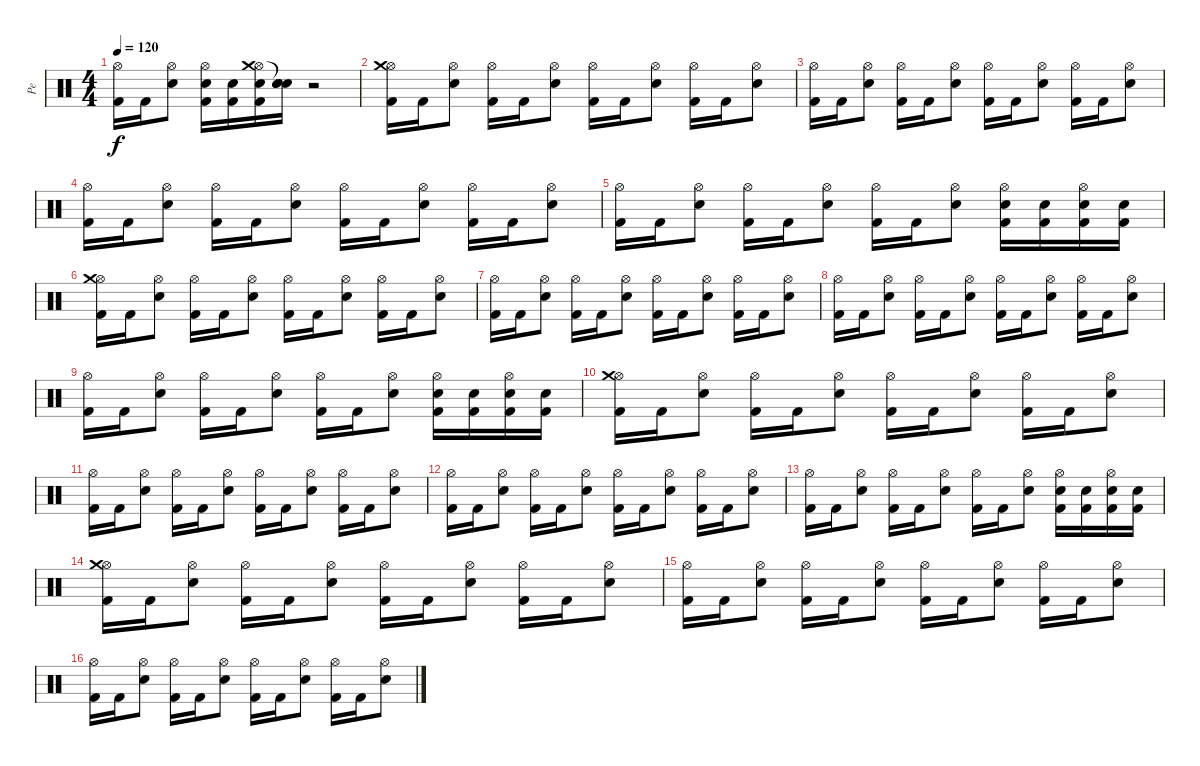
\track ("Pe" "Pe") {instrument percussion}
\staff {score}
\articulation defaults
\ts (4 4)
\tempo 120
\clef neutral
\ks c
("Hi-Hat (open)" "Kick (hit) 2").16{dy f} "Kick (hit) 2".16 ("Hi-Hat (open)" "Electric Snare (hit)").8 ("Hi-Hat (open)" "Electric Snare (hit)" "Kick (hit) 2").16 ("Electric Snare (hit)" "Kick (hit) 2").16 ("Hi-Hat (open)" "Crash medium (hit)" "Electric Snare (hit)" "Kick (hit) 2").16 ("Snare (hit)"{t} "Snare (hit)"{t} "Electric Snare (hit)").16 r.2 |
("Hi-Hat (open)" "Crash medium (hit)" "Kick (hit) 2").16 "Kick (hit) 2".16 ("Hi-Hat (open)" "Electric Snare (hit)").8 ("Hi-Hat (open)" "Kick (hit) 2").16 "Kick (hit) 2".16 ("Hi-Hat (open)" "Electric Snare (hit)").8 ("Hi-Hat (open)" "Kick (hit) 2").16 "Kick (hit) 2".16 ("Hi-Hat (open)" "Electric Snare (hit)").8 ("Hi-Hat (open)" "Kick (hit) 2").16 "Kick (hit) 2".16 ("Hi-Hat (open)" "Electric Snare (hit)").8 |
("Hi-Hat (open)" "Kick (hit) 2").16 "Kick (hit) 2".16 ("Hi-Hat (open)" "Electric Snare (hit)").8 ("Hi-Hat (open)" "Kick (hit) 2").16 "Kick (hit) 2".16 ("Hi-Hat (open)" "Electric Snare (hit)").8 ("Hi-Hat (open)" "Kick (hit) 2").16 "Kick (hit) 2".16 ("Hi-Hat (open)" "Electric Snare (hit)").8 ("Hi-Hat (open)" "Kick (hit) 2").16 "Kick (hit) 2".16 ("Hi-Hat (open)" "Electric Snare (hit)").8 |
("Hi-Hat (open)" "Kick (hit) 2").16 "Kick (hit) 2".16 ("Hi-Hat (open)" "Electric Snare (hit)").8 ("Hi-Hat (open)" "Kick (hit) 2").16 "Kick (hit) 2".16 ("Hi-Hat (open)" "Electric Snare (hit)").8 ("Hi-Hat (open)" "Kick (hit) 2").16 "Kick (hit) 2".16 ("Hi-Hat (open)" "Electric Snare (hit)").8 ("Hi-Hat (open)" "Kick (hit) 2").16 "Kick (hit) 2".16 ("Hi-Hat (open)" "Electric Snare (hit)").8 |
("Hi-Hat (open)" "Kick (hit) 2").16 "Kick (hit) 2".16 ("Hi-Hat (open)" "Electric Snare (hit)").8 ("Hi-Hat (open)" "Kick (hit) 2").16 "Kick (hit) 2".16 ("Hi-Hat (open)" "Electric Snare (hit)").8 ("Hi-Hat (open)" "Kick (hit) 2").16 "Kick (hit) 2".16 ("Hi-Hat (open)" "Electric Snare (hit)").8 ("Hi-Hat (open)" "Electric Snare (hit)" "Kick (hit) 2").16 ("Electric Snare (hit)" "Kick (hit) 2").16 ("Hi-Hat (open)" "Electric Snare (hit)" "Kick (hit) 2").16 ("Electric Snare (hit)" "Kick (hit) 2").16 |
("Hi-Hat (open)" "Crash medium (hit)" "Kick (hit) 2").16 "Kick (hit) 2".16 ("Hi-Hat (open)" "Electric Snare (hit)").8 ("Hi-Hat (open)" "Kick (hit) 2").16 "Kick (hit) 2".16 ("Hi-Hat (open)" "Electric Snare (hit)").8 ("Hi-Hat (open)" "Kick (hit) 2").16 "Kick (hit) 2".16 ("Hi-Hat (open)" "Electric Snare (hit)").8 ("Hi-Hat (open)" "Kick (hit) 2").16 "Kick (hit) 2".16 ("Hi-Hat (open)" "Electric Snare (hit)").8 |
("Hi-Hat (open)" "Kick (hit) 2").16 "Kick (hit) 2".16 ("Hi-Hat (open)" "Electric Snare (hit)").8 ("Hi-Hat (open)" "Kick (hit) 2").16 "Kick (hit) 2".16 ("Hi-Hat (open)" "Electric Snare (hit)").8 ("Hi-Hat (open)" "Kick (hit) 2").16 "Kick (hit) 2".16 ("Hi-Hat (open)" "Electric Snare (hit)").8 ("Hi-Hat (open)" "Kick (hit) 2").16 "Kick (hit) 2".16 ("Hi-Hat (open)" "Electric Snare (hit)").8 |
("Hi-Hat (open)" "Kick (hit) 2").16 "Kick (hit) 2".16 ("Hi-Hat (open)" "Electric Snare (hit)").8 ("Hi-Hat (open)" "Kick (hit) 2").16 "Kick (hit) 2".16 ("Hi-Hat (open)" "Electric Snare (hit)").8 ("Hi-Hat (open)" "Kick (hit) 2").16 "Kick (hit) 2".16 ("Hi-Hat (open)" "Electric Snare (hit)").8 ("Hi-Hat (open)" "Kick (hit) 2").16 "Kick (hit) 2".16 ("Hi-Hat (open)" "Electric Snare (hit)").8 |
("Hi-Hat (open)" "Kick (hit) 2").16 "Kick (hit) 2".16 ("Hi-Hat (open)" "Electric Snare (hit)").8 ("Hi-Hat (open)" "Kick (hit) 2").16 "Kick (hit) 2".16 ("Hi-Hat (open)" "Electric Snare (hit)").8 ("Hi-Hat (open)" "Kick (hit) 2").16 "Kick (hit) 2".16 ("Hi-Hat (open)" "Electric Snare (hit)").8 ("Hi-Hat (open)" "Electric Snare (hit)" "Kick (hit) 2").16 ("Electric Snare (hit)" "Kick (hit) 2").16 ("Hi-Hat (open)" "Electric Snare (hit)" "Kick (hit) 2").16 ("Electric Snare (hit)" "Kick (hit) 2").16 |
("Hi-Hat (open)" "Crash medium (hit)" "Kick (hit) 2").16 "Kick (hit) 2".16 ("Hi-Hat (open)" "Electric Snare (hit)").8 ("Hi-Hat (open)" "Kick (hit) 2").16 "Kick (hit) 2".16 ("Hi-Hat (open)" "Electric Snare (hit)").8 ("Hi-Hat (open)" "Kick (hit) 2").16 "Kick (hit) 2".16 ("Hi-Hat (open)" "Electric Snare (hit)").8 ("Hi-Hat (open)" "Kick (hit) 2").16 "Kick (hit) 2".16 ("Hi-Hat (open)" "Electric Snare (hit)").8 |
("Hi-Hat (open)" "Kick (hit) 2").16 "Kick (hit) 2".16 ("Hi-Hat (open)" "Electric Snare (hit)").8 ("Hi-Hat (open)" "Kick (hit) 2").16 "Kick (hit) 2".16 ("Hi-Hat (open)" "Electric Snare (hit)").8 ("Hi-Hat (open)" "Kick (hit) 2").16 "Kick (hit) 2".16 ("Hi-Hat (open)" "Electric Snare (hit)").8 ("Hi-Hat (open)" "Kick (hit) 2").16 "Kick (hit) 2".16 ("Hi-Hat (open)" "Electric Snare (hit)").8 |
("Hi-Hat (open)" "Kick (hit) 2").16 "Kick (hit) 2".16 ("Hi-Hat (open)" "Electric Snare (hit)").8 ("Hi-Hat (open)" "Kick (hit) 2").16 "Kick (hit) 2".16 ("Hi-Hat (open)" "Electric Snare (hit)").8 ("Hi-Hat (open)" "Kick (hit) 2").16 "Kick (hit) 2".16 ("Hi-Hat (open)" "Electric Snare (hit)").8 ("Hi-Hat (open)" "Kick (hit) 2").16 "Kick (hit) 2".16 ("Hi-Hat (open)" "Electric Snare (hit)").8 |
("Hi-Hat (open)" "Kick (hit) 2").16 "Kick (hit) 2".16 ("Hi-Hat (open)" "Electric Snare (hit)").8 ("Hi-Hat (open)" "Kick (hit) 2").16 "Kick (hit) 2".16 ("Hi-Hat (open)" "Electric Snare (hit)").8 ("Hi-Hat (open)" "Kick (hit) 2").16 "Kick (hit) 2".16 ("Hi-Hat (open)" "Electric Snare (hit)").8 ("Hi-Hat (open)" "Electric Snare (hit)" "Kick (hit) 2").16 ("Electric Snare (hit)" "Kick (hit) 2").16 ("Hi-Hat (open)" "Electric Snare (hit)" "Kick (hit) 2").16 ("Electric Snare (hit)" "Kick (hit) 2").16 |
("Hi-Hat (open)" "Crash medium (hit)" "Kick (hit) 2").16 "Kick (hit) 2".16 ("Hi-Hat (open)" "Electric Snare (hit)").8 ("Hi-Hat (open)" "Kick (hit) 2").16 "Kick (hit) 2".16 ("Hi-Hat (open)" "Electric Snare (hit)").8 ("Hi-Hat (open)" "Kick (hit) 2").16 "Kick (hit) 2".16 ("Hi-Hat (open)" "Electric Snare (hit)").8 ("Hi-Hat (open)" "Kick (hit) 2").16 "Kick (hit) 2".16 ("Hi-Hat (open)" "Electric Snare (hit)").8 |
("Hi-Hat (open)" "Kick (hit) 2").16 "Kick (hit) 2".16 ("Hi-Hat (open)" "Electric Snare (hit)").8 ("Hi-Hat (open)" "Kick (hit) 2").16 "Kick (hit) 2".16 ("Hi-Hat (open)" "Electric Snare (hit)").8 ("Hi-Hat (open)" "Kick (hit) 2").16 "Kick (hit) 2".16 ("Hi-Hat (open)" "Electric Snare (hit)").8 ("Hi-Hat (open)" "Kick (hit) 2").16 "Kick (hit) 2".16 ("Hi-Hat (open)" "Electric Snare (hit)").8 |
("Hi-Hat (open)" "Kick (hit) 2").16 "Kick (hit) 2".16 ("Hi-Hat (open)" "Electric Snare (hit)").8 ("Hi-Hat (open)" "Kick (hit) 2").16 "Kick (hit) 2".16 ("Hi-Hat (open)" "Electric Snare (hit)").8 ("Hi-Hat (open)" "Kick (hit) 2").16 "Kick (hit) 2".16 ("Hi-Hat (open)" "Electric Snare (hit)").8 ("Hi-Hat (open)" "Kick (hit) 2").16 "Kick (hit) 2".16 ("Hi-Hat (open)" "Electric Snare (hit)").8
